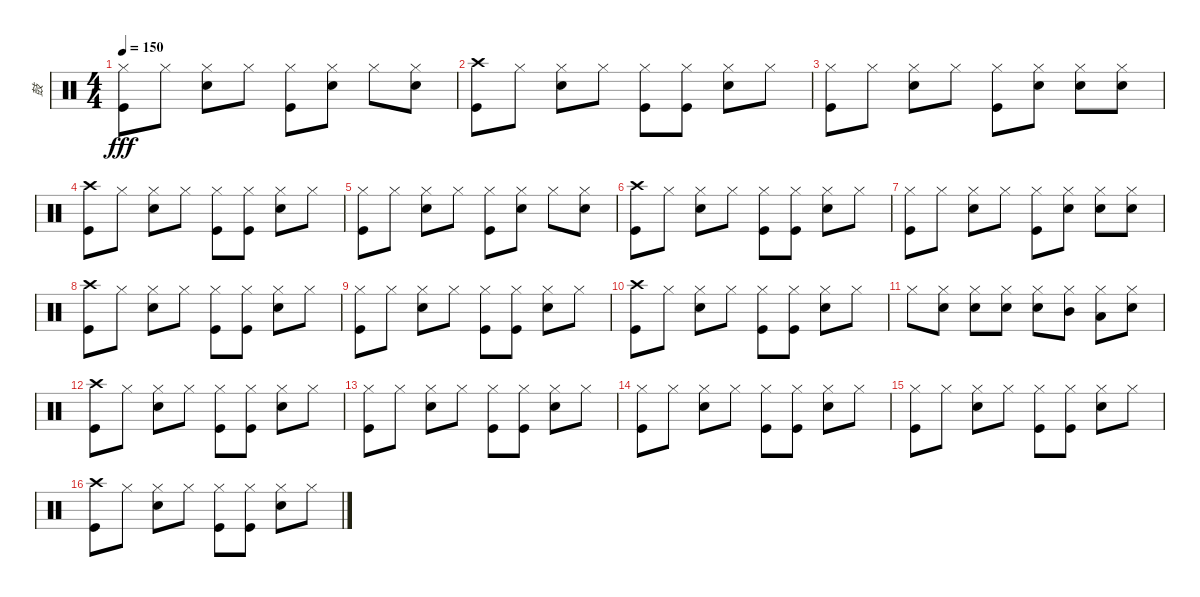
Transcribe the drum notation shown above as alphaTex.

\track ("鼓" "鼓") {instrument percussion}
\staff {score}
\articulation defaults
\ts (4 4)
\tempo 150
\clef neutral
\ks c
("Hi-Hat (closed)" "Kick (hit)").8{dy fff} "Hi-Hat (closed)".8 ("Hi-Hat (closed)" "Electric Snare (hit)").8 "Hi-Hat (closed)".8 ("Hi-Hat (closed)" "Kick (hit)").8 ("Hi-Hat (closed)" "Electric Snare (hit)").8 "Hi-Hat (closed)".8 ("Hi-Hat (closed)" "Electric Snare (hit)").8 |
("Crash high (hit)" "Kick (hit)").8 "Hi-Hat (closed)".8 ("Hi-Hat (closed)" "Electric Snare (hit)").8 "Hi-Hat (closed)".8 ("Hi-Hat (closed)" "Kick (hit)").8 ("Hi-Hat (closed)" "Kick (hit)").8 ("Hi-Hat (closed)" "Electric Snare (hit)").8 "Hi-Hat (closed)".8 |
("Hi-Hat (closed)" "Kick (hit)").8 "Hi-Hat (closed)".8 ("Hi-Hat (closed)" "Electric Snare (hit)").8 "Hi-Hat (closed)".8 ("Hi-Hat (closed)" "Kick (hit)").8 ("Hi-Hat (closed)" "Electric Snare (hit)").8 ("Hi-Hat (closed)" "Electric Snare (hit)").8 ("Hi-Hat (closed)" "Electric Snare (hit)").8 |
("Crash high (hit)" "Kick (hit)").8 "Hi-Hat (closed)".8 ("Hi-Hat (closed)" "Electric Snare (hit)").8 "Hi-Hat (closed)".8 ("Hi-Hat (closed)" "Kick (hit)").8 ("Hi-Hat (closed)" "Kick (hit)").8 ("Hi-Hat (closed)" "Electric Snare (hit)").8 "Hi-Hat (closed)".8 |
("Hi-Hat (closed)" "Kick (hit)").8 "Hi-Hat (closed)".8 ("Hi-Hat (closed)" "Electric Snare (hit)").8 "Hi-Hat (closed)".8 ("Hi-Hat (closed)" "Kick (hit)").8 ("Hi-Hat (closed)" "Electric Snare (hit)").8 "Hi-Hat (closed)".8 ("Hi-Hat (closed)" "Electric Snare (hit)").8 |
("Crash high (hit)" "Kick (hit)").8 "Hi-Hat (closed)".8 ("Hi-Hat (closed)" "Electric Snare (hit)").8 "Hi-Hat (closed)".8 ("Hi-Hat (closed)" "Kick (hit)").8 ("Hi-Hat (closed)" "Kick (hit)").8 ("Hi-Hat (closed)" "Electric Snare (hit)").8 "Hi-Hat (closed)".8 |
("Hi-Hat (closed)" "Kick (hit)").8 "Hi-Hat (closed)".8 ("Hi-Hat (closed)" "Electric Snare (hit)").8 "Hi-Hat (closed)".8 ("Hi-Hat (closed)" "Kick (hit)").8 ("Hi-Hat (closed)" "Electric Snare (hit)").8 ("Hi-Hat (closed)" "Electric Snare (hit)").8 ("Hi-Hat (closed)" "Electric Snare (hit)").8 |
("Crash high (hit)" "Kick (hit)").8 "Hi-Hat (closed)".8 ("Hi-Hat (closed)" "Electric Snare (hit)").8 "Hi-Hat (closed)".8 ("Hi-Hat (closed)" "Kick (hit)").8 ("Hi-Hat (closed)" "Kick (hit)").8 ("Hi-Hat (closed)" "Electric Snare (hit)").8 "Hi-Hat (closed)".8 |
("Hi-Hat (closed)" "Kick (hit)").8 "Hi-Hat (closed)".8 ("Hi-Hat (closed)" "Electric Snare (hit)").8 "Hi-Hat (closed)".8 ("Hi-Hat (closed)" "Kick (hit)").8 ("Hi-Hat (closed)" "Kick (hit)").8 ("Hi-Hat (closed)" "Electric Snare (hit)").8 "Hi-Hat (closed)".8 |
("Crash high (hit)" "Kick (hit)").8 "Hi-Hat (closed)".8 ("Hi-Hat (closed)" "Electric Snare (hit)").8 "Hi-Hat (closed)".8 ("Hi-Hat (closed)" "Kick (hit)").8 ("Hi-Hat (closed)" "Kick (hit)").8 ("Hi-Hat (closed)" "Electric Snare (hit)").8 "Hi-Hat (closed)".8 |
"Hi-Hat (closed)".8 ("Hi-Hat (closed)" "Electric Snare (hit)").8 ("Hi-Hat (closed)" "Electric Snare (hit)").8 ("Hi-Hat (closed)" "Electric Snare (hit)").8 ("Hi-Hat (closed)" "Electric Snare (hit)").8 ("Hi-Hat (closed)" "Mid Tom (hit)").8 ("Hi-Hat (closed)" "Low Tom (hit)").8 ("Hi-Hat (closed)" "Electric Snare (hit)").8 |
("Crash high (hit)" "Kick (hit)").8 "Hi-Hat (closed)".8 ("Hi-Hat (closed)" "Electric Snare (hit)").8 "Hi-Hat (closed)".8 ("Hi-Hat (closed)" "Kick (hit)").8 ("Hi-Hat (closed)" "Kick (hit)").8 ("Hi-Hat (closed)" "Electric Snare (hit)").8 "Hi-Hat (closed)".8 |
("Hi-Hat (closed)" "Kick (hit)").8 "Hi-Hat (closed)".8 ("Hi-Hat (closed)" "Electric Snare (hit)").8 "Hi-Hat (closed)".8 ("Hi-Hat (closed)" "Kick (hit)").8 ("Hi-Hat (closed)" "Kick (hit)").8 ("Hi-Hat (closed)" "Electric Snare (hit)").8 "Hi-Hat (closed)".8 |
("Hi-Hat (closed)" "Kick (hit)").8 "Hi-Hat (closed)".8 ("Hi-Hat (closed)" "Electric Snare (hit)").8 "Hi-Hat (closed)".8 ("Hi-Hat (closed)" "Kick (hit)").8 ("Hi-Hat (closed)" "Kick (hit)").8 ("Hi-Hat (closed)" "Electric Snare (hit)").8 "Hi-Hat (closed)".8 |
("Hi-Hat (closed)" "Kick (hit)").8 "Hi-Hat (closed)".8 ("Hi-Hat (closed)" "Electric Snare (hit)").8 "Hi-Hat (closed)".8 ("Hi-Hat (closed)" "Kick (hit)").8 ("Hi-Hat (closed)" "Kick (hit)").8 ("Hi-Hat (closed)" "Electric Snare (hit)").8 "Hi-Hat (closed)".8 |
("Crash high (hit)" "Kick (hit)").8 "Hi-Hat (closed)".8 ("Hi-Hat (closed)" "Electric Snare (hit)").8 "Hi-Hat (closed)".8 ("Hi-Hat (closed)" "Kick (hit)").8 ("Hi-Hat (closed)" "Kick (hit)").8 ("Hi-Hat (closed)" "Electric Snare (hit)").8 "Hi-Hat (closed)".8
